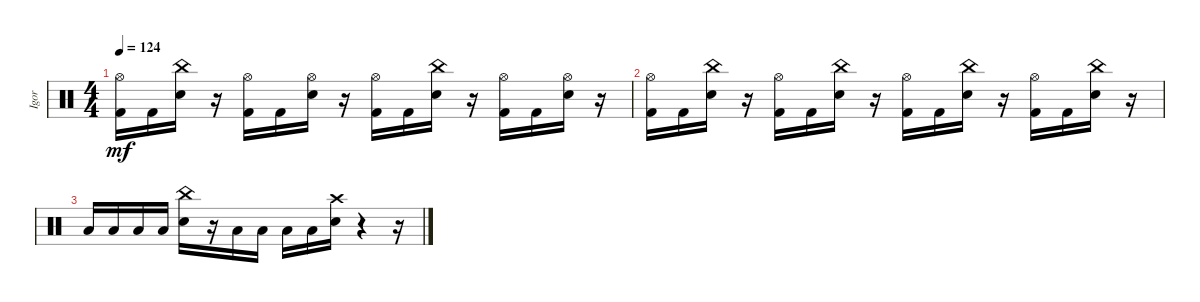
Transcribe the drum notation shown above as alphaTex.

\track ("Igor" "Igor") {instrument percussion}
\staff {score}
\articulation defaults
\ts (4 4)
\tempo 124
\clef neutral
\ks c
("Kick (hit) 2" "Hi-Hat (open)").16{dy mf} "Kick (hit) 2".16 ("Snare (hit) 2" "China (hit)").16 r.16 ("Kick (hit) 2" "Hi-Hat (open)").16 "Kick (hit) 2".16 ("Snare (hit) 2" "Hi-Hat (open)").16 r.16 ("Kick (hit) 2" "Hi-Hat (open)").16 "Kick (hit) 2".16 ("Snare (hit) 2" "China (hit)").16 r.16 ("Kick (hit) 2" "Hi-Hat (open)").16 "Kick (hit) 2".16 ("Snare (hit) 2" "Hi-Hat (open)").16 r.16 |
("Kick (hit) 2" "Hi-Hat (open)").16 "Kick (hit) 2".16 ("Snare (hit) 2" "China (hit)").16 r.16 ("Kick (hit) 2" "Hi-Hat (open)").16 "Kick (hit) 2".16 ("Snare (hit) 2" "China (hit)").16 r.16 ("Kick (hit) 2" "Hi-Hat (open)").16 "Kick (hit) 2".16 ("Snare (hit) 2" "China (hit)").16 r.16 ("Kick (hit) 2" "Hi-Hat (open)").16 "Kick (hit) 2".16 ("Snare (hit) 2" "China (hit)").16 r.16 |
"Low Tom (hit)".16 "Low Tom (hit)".16 "Low Tom (hit)".16 "Low Tom (hit)".16 ("Snare (hit) 2" "China (hit)").16 r.16 "Low Floor Tom (hit)".16 "Low Floor Tom (hit)".16 "Low Floor Tom (hit)".16 "Low Floor Tom (hit)".16 ("Snare (hit) 2" "Crash high (hit)").16 r.4 r.16
